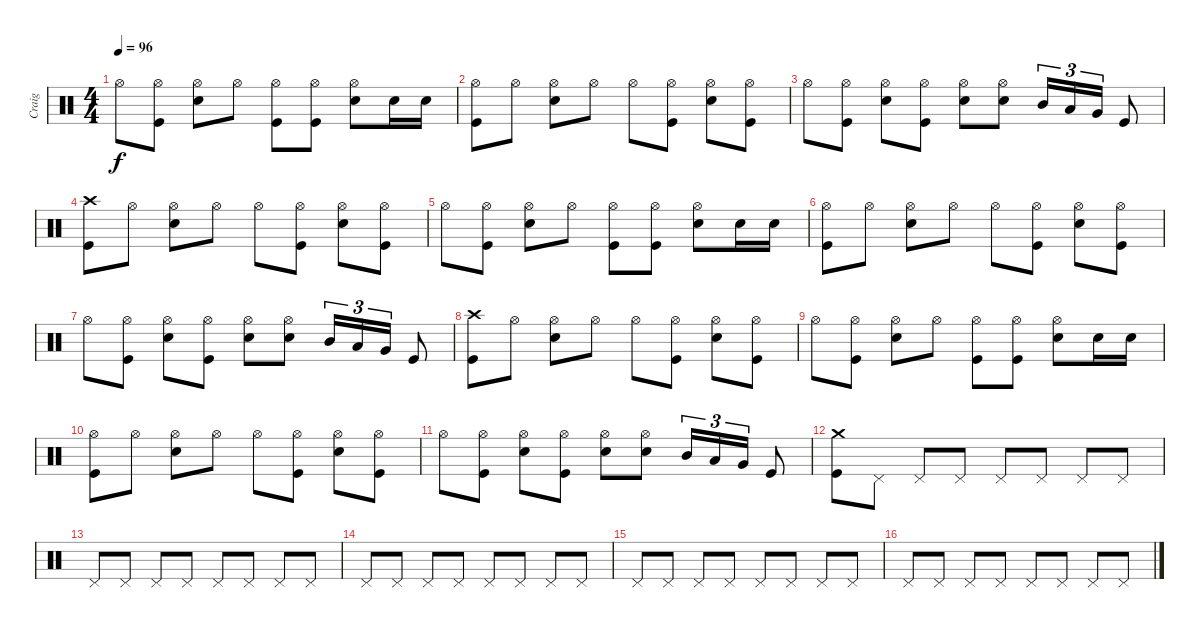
\track ("Craig" "Craig") {instrument percussion}
\staff {score}
\articulation defaults
\ts (4 4)
\tempo 96
\clef neutral
\ks c "Hi-Hat (open)".8{dy f}
("Hi-Hat (open)" "Kick (hit)").8 ("Hi-Hat (open)" "Snare (hit) 2").8 "Hi-Hat (open)".8 ("Hi-Hat (open)" "Kick (hit)").8 ("Hi-Hat (open)" "Kick (hit)").8 ("Hi-Hat (open)" "Snare (hit) 2").8 "Snare (hit) 2".16 "Snare (hit) 2".16 |
("Hi-Hat (open)" "Kick (hit)").8 "Hi-Hat (open)".8 ("Hi-Hat (open)" "Snare (hit) 2").8 "Hi-Hat (open)".8 "Hi-Hat (open)".8 ("Hi-Hat (open)" "Kick (hit)").8 ("Hi-Hat (open)" "Snare (hit) 2").8 ("Hi-Hat (open)" "Kick (hit)").8 |
"Hi-Hat (open)".8 ("Hi-Hat (open)" "Kick (hit)").8 ("Hi-Hat (open)" "Snare (hit) 2").8 ("Hi-Hat (open)" "Kick (hit)").8 ("Hi-Hat (open)" "Snare (hit) 2").8 ("Hi-Hat (open)" "Snare (hit) 2").8 "Mid Tom (hit)".16{tu (3 2)} "Low Tom (hit)".16{tu (3 2)} "Very Low Tom (hit)".16{tu (3 2)} "Kick (hit)".8 |
("Crash high (hit)" "Kick (hit)").8 "Hi-Hat (open)".8 ("Hi-Hat (open)" "Snare (hit) 2").8 "Hi-Hat (open)".8 "Hi-Hat (open)".8 ("Hi-Hat (open)" "Kick (hit)").8 ("Hi-Hat (open)" "Snare (hit) 2").8 ("Hi-Hat (open)" "Kick (hit)").8 |
"Hi-Hat (open)".8 ("Hi-Hat (open)" "Kick (hit)").8 ("Hi-Hat (open)" "Snare (hit) 2").8 "Hi-Hat (open)".8 ("Hi-Hat (open)" "Kick (hit)").8 ("Hi-Hat (open)" "Kick (hit)").8 ("Hi-Hat (open)" "Snare (hit) 2").8 "Snare (hit) 2".16 "Snare (hit) 2".16 |
("Hi-Hat (open)" "Kick (hit)").8 "Hi-Hat (open)".8 ("Hi-Hat (open)" "Snare (hit) 2").8 "Hi-Hat (open)".8 "Hi-Hat (open)".8 ("Hi-Hat (open)" "Kick (hit)").8 ("Hi-Hat (open)" "Snare (hit) 2").8 ("Hi-Hat (open)" "Kick (hit)").8 |
"Hi-Hat (open)".8 ("Hi-Hat (open)" "Kick (hit)").8 ("Hi-Hat (open)" "Snare (hit) 2").8 ("Hi-Hat (open)" "Kick (hit)").8 ("Hi-Hat (open)" "Snare (hit) 2").8 ("Hi-Hat (open)" "Snare (hit) 2").8 "Mid Tom (hit)".16{tu (3 2)} "Low Tom (hit)".16{tu (3 2)} "Very Low Tom (hit)".16{tu (3 2)} "Kick (hit)".8 |
("Crash high (hit)" "Kick (hit)").8 "Hi-Hat (open)".8 ("Hi-Hat (open)" "Snare (hit) 2").8 "Hi-Hat (open)".8 "Hi-Hat (open)".8 ("Hi-Hat (open)" "Kick (hit)").8 ("Hi-Hat (open)" "Snare (hit) 2").8 ("Hi-Hat (open)" "Kick (hit)").8 |
"Hi-Hat (open)".8 ("Hi-Hat (open)" "Kick (hit)").8 ("Hi-Hat (open)" "Snare (hit) 2").8 "Hi-Hat (open)".8 ("Hi-Hat (open)" "Kick (hit)").8 ("Hi-Hat (open)" "Kick (hit)").8 ("Hi-Hat (open)" "Snare (hit) 2").8 "Snare (hit) 2".16 "Snare (hit) 2".16 |
("Hi-Hat (open)" "Kick (hit)").8 "Hi-Hat (open)".8 ("Hi-Hat (open)" "Snare (hit) 2").8 "Hi-Hat (open)".8 "Hi-Hat (open)".8 ("Hi-Hat (open)" "Kick (hit)").8 ("Hi-Hat (open)" "Snare (hit) 2").8 ("Hi-Hat (open)" "Kick (hit)").8 |
"Hi-Hat (open)".8 ("Hi-Hat (open)" "Kick (hit)").8 ("Hi-Hat (open)" "Snare (hit) 2").8 ("Hi-Hat (open)" "Kick (hit)").8 ("Hi-Hat (open)" "Snare (hit) 2").8 ("Hi-Hat (open)" "Snare (hit) 2").8 "Mid Tom (hit)".16{tu (3 2)} "Low Tom (hit)".16{tu (3 2)} "Very Low Tom (hit)".16{tu (3 2)} "Kick (hit)".8 |
("Crash medium (hit)" "Kick (hit)").8 "Pedal Hi-Hat (hit)".8 "Pedal Hi-Hat (hit)".8 "Pedal Hi-Hat (hit)".8 "Pedal Hi-Hat (hit)".8 "Pedal Hi-Hat (hit)".8 "Pedal Hi-Hat (hit)".8 "Pedal Hi-Hat (hit)".8 |
"Pedal Hi-Hat (hit)".8 "Pedal Hi-Hat (hit)".8 "Pedal Hi-Hat (hit)".8 "Pedal Hi-Hat (hit)".8 "Pedal Hi-Hat (hit)".8 "Pedal Hi-Hat (hit)".8 "Pedal Hi-Hat (hit)".8 "Pedal Hi-Hat (hit)".8 |
"Pedal Hi-Hat (hit)".8 "Pedal Hi-Hat (hit)".8 "Pedal Hi-Hat (hit)".8 "Pedal Hi-Hat (hit)".8 "Pedal Hi-Hat (hit)".8 "Pedal Hi-Hat (hit)".8 "Pedal Hi-Hat (hit)".8 "Pedal Hi-Hat (hit)".8 |
"Pedal Hi-Hat (hit)".8 "Pedal Hi-Hat (hit)".8 "Pedal Hi-Hat (hit)".8 "Pedal Hi-Hat (hit)".8 "Pedal Hi-Hat (hit)".8 "Pedal Hi-Hat (hit)".8 "Pedal Hi-Hat (hit)".8 "Pedal Hi-Hat (hit)".8 |
"Pedal Hi-Hat (hit)".8 "Pedal Hi-Hat (hit)".8 "Pedal Hi-Hat (hit)".8 "Pedal Hi-Hat (hit)".8 "Pedal Hi-Hat (hit)".8 "Pedal Hi-Hat (hit)".8 "Pedal Hi-Hat (hit)".8 "Pedal Hi-Hat (hit)".8
